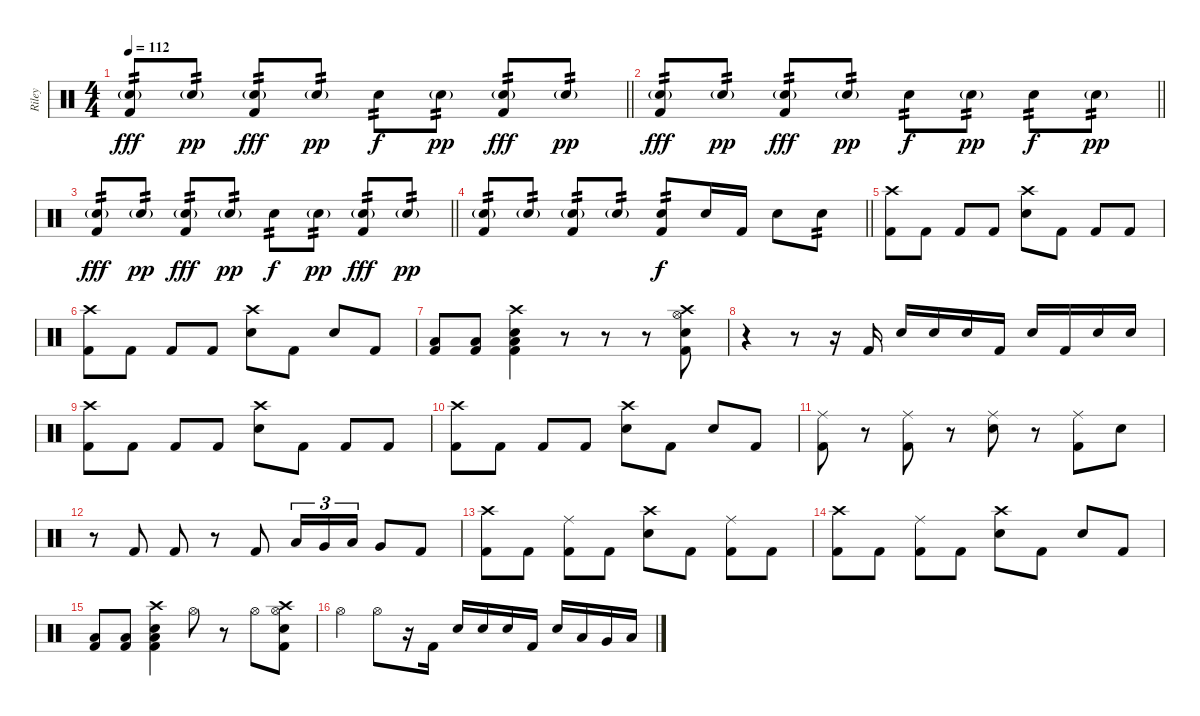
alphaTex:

\track ("Riley" "Riley") {instrument percussion}
\staff {score}
\articulation defaults
\ts (4 4)
\tempo 112
\clef neutral
\barLineRight lightlight
\ks c
("Snare (hit) 2"{g} "Kick (hit) 2").8{tp 2 dy fff} "Snare (hit) 2"{g}.8{tp 2 dy pp} ("Snare (hit) 2"{g} "Kick (hit) 2").8{tp 2 dy fff} "Snare (hit) 2"{g}.8{tp 2 dy pp} "Snare (hit) 2".8{tp 2 dy f} "Snare (hit) 2"{g}.8{tp 2 dy pp} ("Snare (hit) 2"{g} "Kick (hit) 2").8{tp 2 dy fff} "Snare (hit) 2"{g}.8{tp 2 dy pp} |
\barLineRight lightlight
("Snare (hit) 2"{g} "Kick (hit) 2").8{tp 2 dy fff} "Snare (hit) 2"{g}.8{tp 2 dy pp} ("Snare (hit) 2"{g} "Kick (hit) 2").8{tp 2 dy fff} "Snare (hit) 2"{g}.8{tp 2 dy pp} "Snare (hit) 2".8{tp 2 dy f} "Snare (hit) 2"{g}.8{tp 2 dy pp} "Snare (hit) 2".8{tp 2 dy f} "Snare (hit) 2"{g}.8{tp 2 dy pp} |
\barLineRight lightlight
("Snare (hit) 2"{g} "Kick (hit) 2").8{tp 2 dy fff} "Snare (hit) 2"{g}.8{tp 2 dy pp} ("Snare (hit) 2"{g} "Kick (hit) 2").8{tp 2 dy fff} "Snare (hit) 2"{g}.8{tp 2 dy pp} "Snare (hit) 2".8{tp 2 dy f} "Snare (hit) 2"{g}.8{tp 2 dy pp} ("Snare (hit) 2"{g} "Kick (hit) 2").8{tp 2 dy fff} "Snare (hit) 2"{g}.8{tp 2 dy pp} |
\barLineRight lightlight
("Snare (hit) 2"{g} "Kick (hit) 2").8{tp 2} "Snare (hit) 2"{g}.8{tp 2} ("Snare (hit) 2"{g} "Kick (hit) 2").8{tp 2} "Snare (hit) 2"{g}.8{tp 2} ("Snare (hit) 2" "Kick (hit) 2").8{tp 2 dy f} "Snare (hit) 2".16 "Kick (hit) 2".16 "Snare (hit) 2".8 "Snare (hit) 2".8{tp 2} |
("Crash high (hit)" "Kick (hit) 2").8 "Kick (hit) 2".8 "Kick (hit) 2".8 "Kick (hit) 2".8 ("Crash high (hit)" "Snare (hit) 2").8 "Kick (hit) 2".8 "Kick (hit) 2".8 "Kick (hit) 2".8 |
("Crash high (hit)" "Kick (hit) 2").8 "Kick (hit) 2".8 "Kick (hit) 2".8 "Kick (hit) 2".8 ("Crash high (hit)" "Snare (hit) 2").8 "Kick (hit) 2".8 "Snare (hit) 2".8 "Kick (hit) 2".8 |
("Low Floor Tom (hit)" "Kick (hit) 2").8 ("Low Floor Tom (hit)" "Kick (hit) 2").8 ("Crash high (hit)" "Snare (hit) 2" "Low Floor Tom (hit)" "Kick (hit) 2").4 r.8 r.8 r.8 ("Hi-Hat (open)" "Crash high (hit)" "Snare (hit) 2" "Kick (hit) 2").8 |
r.4 r.8 r.16 "Kick (hit) 2".16 "Snare (hit) 2".16 "Snare (hit) 2".16 "Snare (hit) 2".16 "Kick (hit) 2".16 "Snare (hit) 2".16 "Kick (hit) 2".16 "Snare (hit) 2".16 "Snare (hit) 2".16 |
("Crash high (hit)" "Kick (hit) 2").8 "Kick (hit) 2".8 "Kick (hit) 2".8 "Kick (hit) 2".8 ("Crash high (hit)" "Snare (hit) 2").8 "Kick (hit) 2".8 "Kick (hit) 2".8 "Kick (hit) 2".8 |
("Crash high (hit)" "Kick (hit) 2").8 "Kick (hit) 2".8 "Kick (hit) 2".8 "Kick (hit) 2".8 ("Crash high (hit)" "Snare (hit) 2").8 "Kick (hit) 2".8 "Snare (hit) 2".8 "Kick (hit) 2".8 |
("Ride (middle)" "Kick (hit) 2").8 r.8 ("Ride (middle)" "Kick (hit) 2").8 r.8 ("Ride (middle)" "Snare (hit) 2").8 r.8 ("Ride (middle)" "Kick (hit) 2").8 "Snare (hit) 2".8 |
r.8 "Kick (hit) 2".8 "Kick (hit) 2".8 r.8 "Kick (hit) 2".8 "Low Tom (hit)".16{tu (3 2)} "Very Low Tom (hit)".16{tu (3 2)} "Low Floor Tom (hit)".16{tu (3 2)} "Very Low Tom (hit)".8 "Kick (hit) 2".8 |
("Crash high (hit)" "Kick (hit) 2").8 "Kick (hit) 2".8 ("Ride (middle)" "Kick (hit) 2").8 "Kick (hit) 2".8 ("Crash high (hit)" "Snare (hit) 2").8 "Kick (hit) 2".8 ("Ride (middle)" "Kick (hit) 2").8 "Kick (hit) 2".8 |
("Crash high (hit)" "Kick (hit) 2").8 "Kick (hit) 2".8 ("Ride (middle)" "Kick (hit) 2").8 "Kick (hit) 2".8 ("Crash high (hit)" "Snare (hit) 2").8 "Kick (hit) 2".8 "Snare (hit) 2".8 "Kick (hit) 2".8 |
("Low Floor Tom (hit)" "Kick (hit) 2").8 ("Low Floor Tom (hit)" "Kick (hit) 2").8 ("Crash high (hit)" "Snare (hit) 2" "Low Floor Tom (hit)" "Kick (hit) 2").4 "Hi-Hat (open)".8 r.8 "Hi-Hat (open)".8 ("Hi-Hat (open)" "Crash high (hit)" "Snare (hit) 2" "Kick (hit) 2").8 |
"Hi-Hat (open)".4 "Hi-Hat (open)".8 r.16 "Kick (hit) 2".16 "Snare (hit) 2".16 "Snare (hit) 2".16 "Snare (hit) 2".16 "Kick (hit) 2".16 "Snare (hit) 2".16 "Low Tom (hit)".16 "Very Low Tom (hit)".16 "Low Floor Tom (hit)".16
